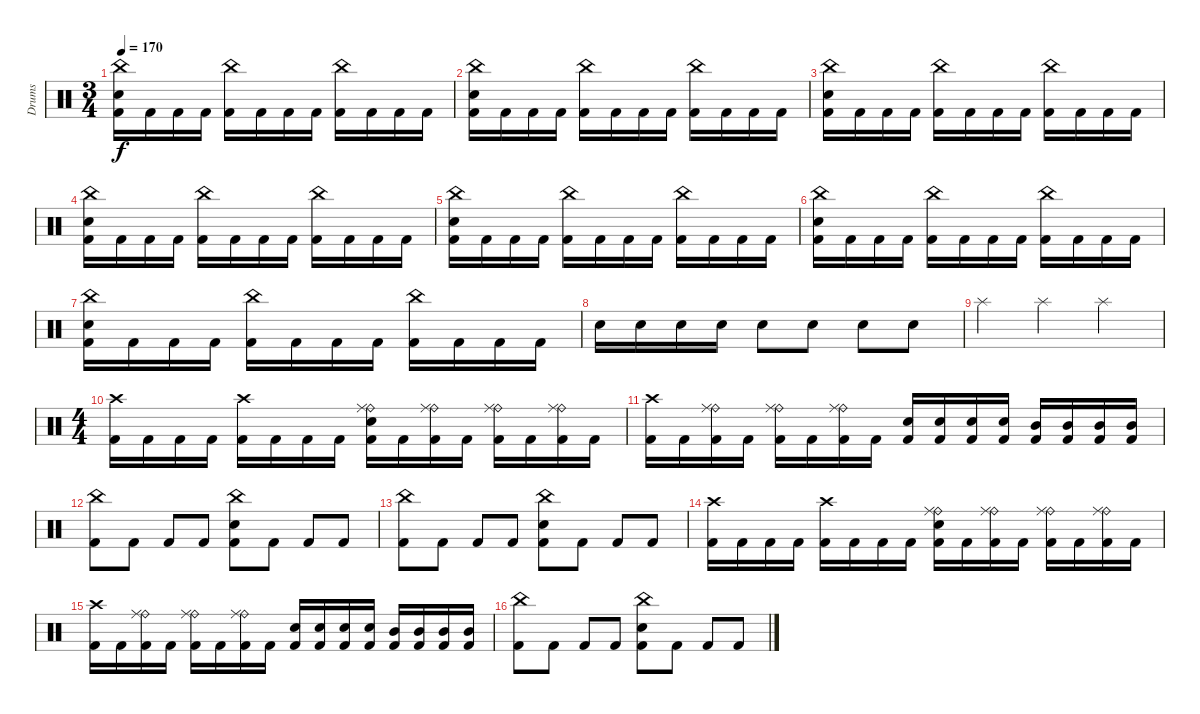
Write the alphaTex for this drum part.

\track ("Drums" "Drums") {instrument percussion}
\staff {score}
\articulation defaults
\ts (3 4)
\tempo 170
\clef neutral
\ks c
("China (hit)" "Electric Snare (hit)" "Kick (hit) 2").16{dy f} "Kick (hit) 2".16 "Kick (hit) 2".16 "Kick (hit) 2".16 ("China (hit)" "Kick (hit) 2").16 "Kick (hit) 2".16 "Kick (hit) 2".16 "Kick (hit) 2".16 ("China (hit)" "Kick (hit) 2").16 "Kick (hit) 2".16 "Kick (hit) 2".16 "Kick (hit) 2".16 |
("China (hit)" "Electric Snare (hit)" "Kick (hit) 2").16 "Kick (hit) 2".16 "Kick (hit) 2".16 "Kick (hit) 2".16 ("China (hit)" "Kick (hit) 2").16 "Kick (hit) 2".16 "Kick (hit) 2".16 "Kick (hit) 2".16 ("China (hit)" "Kick (hit) 2").16 "Kick (hit) 2".16 "Kick (hit) 2".16 "Kick (hit) 2".16 |
("China (hit)" "Electric Snare (hit)" "Kick (hit) 2").16 "Kick (hit) 2".16 "Kick (hit) 2".16 "Kick (hit) 2".16 ("China (hit)" "Kick (hit) 2").16 "Kick (hit) 2".16 "Kick (hit) 2".16 "Kick (hit) 2".16 ("China (hit)" "Kick (hit) 2").16 "Kick (hit) 2".16 "Kick (hit) 2".16 "Kick (hit) 2".16 |
("China (hit)" "Electric Snare (hit)" "Kick (hit) 2").16 "Kick (hit) 2".16 "Kick (hit) 2".16 "Kick (hit) 2".16 ("China (hit)" "Kick (hit) 2").16 "Kick (hit) 2".16 "Kick (hit) 2".16 "Kick (hit) 2".16 ("China (hit)" "Kick (hit) 2").16 "Kick (hit) 2".16 "Kick (hit) 2".16 "Kick (hit) 2".16 |
("China (hit)" "Electric Snare (hit)" "Kick (hit) 2").16 "Kick (hit) 2".16 "Kick (hit) 2".16 "Kick (hit) 2".16 ("China (hit)" "Kick (hit) 2").16 "Kick (hit) 2".16 "Kick (hit) 2".16 "Kick (hit) 2".16 ("China (hit)" "Kick (hit) 2").16 "Kick (hit) 2".16 "Kick (hit) 2".16 "Kick (hit) 2".16 |
("China (hit)" "Electric Snare (hit)" "Kick (hit) 2").16 "Kick (hit) 2".16 "Kick (hit) 2".16 "Kick (hit) 2".16 ("China (hit)" "Kick (hit) 2").16 "Kick (hit) 2".16 "Kick (hit) 2".16 "Kick (hit) 2".16 ("China (hit)" "Kick (hit) 2").16 "Kick (hit) 2".16 "Kick (hit) 2".16 "Kick (hit) 2".16 |
("China (hit)" "Electric Snare (hit)" "Kick (hit) 2").16 "Kick (hit) 2".16 "Kick (hit) 2".16 "Kick (hit) 2".16 ("China (hit)" "Kick (hit) 2").16 "Kick (hit) 2".16 "Kick (hit) 2".16 "Kick (hit) 2".16 ("China (hit)" "Kick (hit) 2").16 "Kick (hit) 2".16 "Kick (hit) 2".16 "Kick (hit) 2".16 |
"Electric Snare (hit)".16 "Electric Snare (hit)".16 "Electric Snare (hit)".16 "Electric Snare (hit)".16 "Electric Snare (hit)".8 "Electric Snare (hit)".8 "Electric Snare (hit)".8 "Electric Snare (hit)".8 |
"Splash (hit)".4 "Splash (hit)".4 "Splash (hit)".4 |
\ts (4 4)
\section ("" "")
("Crash high (hit)" "Kick (hit) 2").16 "Kick (hit) 2".16 "Kick (hit) 2".16 "Kick (hit) 2".16 ("Crash high (hit)" "Kick (hit) 2").16 "Kick (hit) 2".16 "Kick (hit) 2".16 "Kick (hit) 2".16 ("Ride (bell)" "Ride (middle)" "Electric Snare (hit)" "Kick (hit) 2").16 "Kick (hit) 2".16 ("Ride (bell)" "Ride (middle)" "Kick (hit) 2").16 "Kick (hit) 2".16 ("Ride (bell)" "Ride (middle)" "Kick (hit) 2").16 "Kick (hit) 2".16 ("Ride (bell)" "Ride (middle)" "Kick (hit) 2").16 "Kick (hit) 2".16 |
("Crash high (hit)" "Kick (hit) 2").16 "Kick (hit) 2".16 ("Ride (bell)" "Ride (middle)" "Kick (hit) 2").16 "Kick (hit) 2".16 ("Ride (bell)" "Ride (middle)" "Kick (hit) 2").16 "Kick (hit) 2".16 ("Ride (bell)" "Ride (middle)" "Kick (hit) 2").16 "Kick (hit) 2".16 ("Electric Snare (hit)" "Kick (hit) 2").16 ("Electric Snare (hit)" "Kick (hit) 2").16 ("Electric Snare (hit)" "Kick (hit) 2").16 ("Electric Snare (hit)" "Kick (hit) 2").16 ("Mid Tom (hit)" "Kick (hit) 2").16 ("Mid Tom (hit)" "Kick (hit) 2").16 ("Mid Tom (hit)" "Kick (hit) 2").16 ("Mid Tom (hit)" "Kick (hit) 2").16 |
("China (hit)" "Kick (hit) 2").8 "Kick (hit) 2".8 "Kick (hit) 2".8 "Kick (hit) 2".8 ("China (hit)" "Electric Snare (hit)" "Kick (hit) 2").8 "Kick (hit) 2".8 "Kick (hit) 2".8 "Kick (hit) 2".8 |
("China (hit)" "Kick (hit) 2").8 "Kick (hit) 2".8 "Kick (hit) 2".8 "Kick (hit) 2".8 ("China (hit)" "Electric Snare (hit)" "Kick (hit) 2").8 "Kick (hit) 2".8 "Kick (hit) 2".8 "Kick (hit) 2".8 |
("Crash high (hit)" "Kick (hit) 2").16 "Kick (hit) 2".16 "Kick (hit) 2".16 "Kick (hit) 2".16 ("Crash high (hit)" "Kick (hit) 2").16 "Kick (hit) 2".16 "Kick (hit) 2".16 "Kick (hit) 2".16 ("Ride (bell)" "Ride (middle)" "Electric Snare (hit)" "Kick (hit) 2").16 "Kick (hit) 2".16 ("Ride (bell)" "Ride (middle)" "Kick (hit) 2").16 "Kick (hit) 2".16 ("Ride (bell)" "Ride (middle)" "Kick (hit) 2").16 "Kick (hit) 2".16 ("Ride (bell)" "Ride (middle)" "Kick (hit) 2").16 "Kick (hit) 2".16 |
("Crash high (hit)" "Kick (hit) 2").16 "Kick (hit) 2".16 ("Ride (bell)" "Ride (middle)" "Kick (hit) 2").16 "Kick (hit) 2".16 ("Ride (bell)" "Ride (middle)" "Kick (hit) 2").16 "Kick (hit) 2".16 ("Ride (bell)" "Ride (middle)" "Kick (hit) 2").16 "Kick (hit) 2".16 ("Electric Snare (hit)" "Kick (hit) 2").16 ("Electric Snare (hit)" "Kick (hit) 2").16 ("Electric Snare (hit)" "Kick (hit) 2").16 ("Electric Snare (hit)" "Kick (hit) 2").16 ("Mid Tom (hit)" "Kick (hit) 2").16 ("Mid Tom (hit)" "Kick (hit) 2").16 ("Mid Tom (hit)" "Kick (hit) 2").16 ("Mid Tom (hit)" "Kick (hit) 2").16 |
("China (hit)" "Kick (hit) 2").8 "Kick (hit) 2".8 "Kick (hit) 2".8 "Kick (hit) 2".8 ("China (hit)" "Electric Snare (hit)" "Kick (hit) 2").8 "Kick (hit) 2".8 "Kick (hit) 2".8 "Kick (hit) 2".8
